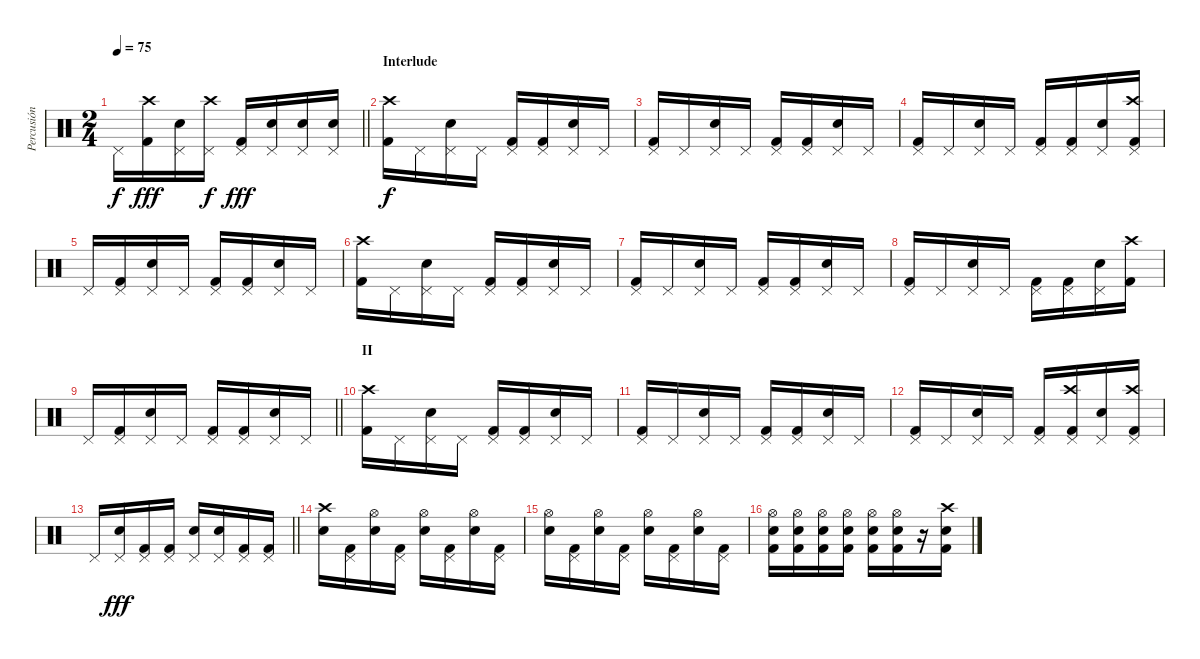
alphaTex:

\track ("Percusión" "Percusión") {instrument percussion}
\staff {score}
\articulation defaults
\ts (2 4)
\tempo 75
\clef neutral
\barLineRight lightlight
\ks c "Pedal Hi-Hat (hit)".16{dy f}
("Crash high (hit)" "Kick (hit) 2").16{dy fff} ("Pedal Hi-Hat (hit)" "Snare (hit) 2").16 ("Crash high (hit)" "Pedal Hi-Hat (hit)").16{dy f} ("Pedal Hi-Hat (hit)" "Kick (hit) 2").16{dy fff} ("Pedal Hi-Hat (hit)" "Snare (hit) 2").16 ("Pedal Hi-Hat (hit)" "Snare (hit) 2").16 ("Pedal Hi-Hat (hit)" "Snare (hit) 2").16 |
\section ("" "Interlude")
("Crash high (hit)" "Kick (hit) 2").16{dy f} "Pedal Hi-Hat (hit)".16 ("Pedal Hi-Hat (hit)" "Snare (hit) 2").16 "Pedal Hi-Hat (hit)".16 ("Pedal Hi-Hat (hit)" "Kick (hit) 2").16 ("Pedal Hi-Hat (hit)" "Kick (hit) 2").16 ("Pedal Hi-Hat (hit)" "Snare (hit) 2").16 "Pedal Hi-Hat (hit)".16 |
("Pedal Hi-Hat (hit)" "Kick (hit) 2").16 "Pedal Hi-Hat (hit)".16 ("Pedal Hi-Hat (hit)" "Snare (hit) 2").16 "Pedal Hi-Hat (hit)".16 ("Pedal Hi-Hat (hit)" "Kick (hit) 2").16 ("Pedal Hi-Hat (hit)" "Kick (hit) 2").16 ("Pedal Hi-Hat (hit)" "Snare (hit) 2").16 "Pedal Hi-Hat (hit)".16 |
("Pedal Hi-Hat (hit)" "Kick (hit) 2").16 "Pedal Hi-Hat (hit)".16 ("Pedal Hi-Hat (hit)" "Snare (hit) 2").16 "Pedal Hi-Hat (hit)".16 ("Pedal Hi-Hat (hit)" "Kick (hit) 2").16 ("Pedal Hi-Hat (hit)" "Kick (hit) 2").16 ("Pedal Hi-Hat (hit)" "Snare (hit) 2").16 ("Crash high (hit)" "Pedal Hi-Hat (hit)" "Kick (hit) 2").16 |
"Pedal Hi-Hat (hit)".16 ("Pedal Hi-Hat (hit)" "Kick (hit) 2").16 ("Pedal Hi-Hat (hit)" "Snare (hit) 2").16 "Pedal Hi-Hat (hit)".16 ("Pedal Hi-Hat (hit)" "Kick (hit) 2").16 ("Pedal Hi-Hat (hit)" "Kick (hit) 2").16 ("Pedal Hi-Hat (hit)" "Snare (hit) 2").16 "Pedal Hi-Hat (hit)".16 |
("Crash high (hit)" "Kick (hit) 2").16 "Pedal Hi-Hat (hit)".16 ("Pedal Hi-Hat (hit)" "Snare (hit) 2").16 "Pedal Hi-Hat (hit)".16 ("Pedal Hi-Hat (hit)" "Kick (hit) 2").16 ("Pedal Hi-Hat (hit)" "Kick (hit) 2").16 ("Pedal Hi-Hat (hit)" "Snare (hit) 2").16 "Pedal Hi-Hat (hit)".16 |
("Pedal Hi-Hat (hit)" "Kick (hit) 2").16 "Pedal Hi-Hat (hit)".16 ("Pedal Hi-Hat (hit)" "Snare (hit) 2").16 "Pedal Hi-Hat (hit)".16 ("Pedal Hi-Hat (hit)" "Kick (hit) 2").16 ("Pedal Hi-Hat (hit)" "Kick (hit) 2").16 ("Pedal Hi-Hat (hit)" "Snare (hit) 2").16 "Pedal Hi-Hat (hit)".16 |
("Pedal Hi-Hat (hit)" "Kick (hit) 2").16 "Pedal Hi-Hat (hit)".16 ("Pedal Hi-Hat (hit)" "Snare (hit) 2").16 "Pedal Hi-Hat (hit)".16 ("Pedal Hi-Hat (hit)" "Kick (hit) 2").16 ("Pedal Hi-Hat (hit)" "Kick (hit) 2").16 ("Pedal Hi-Hat (hit)" "Snare (hit) 2").16 ("Crash high (hit)" "Kick (hit) 2").16 |
\barLineRight lightlight "Pedal Hi-Hat (hit)".16
("Pedal Hi-Hat (hit)" "Kick (hit) 2").16 ("Pedal Hi-Hat (hit)" "Snare (hit) 2").16 "Pedal Hi-Hat (hit)".16 ("Pedal Hi-Hat (hit)" "Kick (hit) 2").16 ("Pedal Hi-Hat (hit)" "Kick (hit) 2").16 ("Pedal Hi-Hat (hit)" "Snare (hit) 2").16 "Pedal Hi-Hat (hit)".16 |
\section ("" "II")
("Crash high (hit)" "Kick (hit) 2").16 "Pedal Hi-Hat (hit)".16 ("Pedal Hi-Hat (hit)" "Snare (hit) 2").16 "Pedal Hi-Hat (hit)".16 ("Pedal Hi-Hat (hit)" "Kick (hit) 2").16 ("Pedal Hi-Hat (hit)" "Kick (hit) 2").16 ("Pedal Hi-Hat (hit)" "Snare (hit) 2").16 "Pedal Hi-Hat (hit)".16 |
("Pedal Hi-Hat (hit)" "Kick (hit) 2").16 "Pedal Hi-Hat (hit)".16 ("Pedal Hi-Hat (hit)" "Snare (hit) 2").16 "Pedal Hi-Hat (hit)".16 ("Pedal Hi-Hat (hit)" "Kick (hit) 2").16 ("Pedal Hi-Hat (hit)" "Kick (hit) 2").16 ("Pedal Hi-Hat (hit)" "Snare (hit) 2").16 "Pedal Hi-Hat (hit)".16 |
("Pedal Hi-Hat (hit)" "Kick (hit) 2").16 "Pedal Hi-Hat (hit)".16 ("Pedal Hi-Hat (hit)" "Snare (hit) 2").16 "Pedal Hi-Hat (hit)".16 ("Pedal Hi-Hat (hit)" "Kick (hit) 2").16 ("Crash high (hit)" "Pedal Hi-Hat (hit)" "Kick (hit) 2").16 ("Pedal Hi-Hat (hit)" "Snare (hit) 2").16 ("Crash high (hit)" "Pedal Hi-Hat (hit)" "Kick (hit) 2").16 |
\barLineRight lightlight "Pedal Hi-Hat (hit)".16
("Pedal Hi-Hat (hit)" "Snare (hit) 2").16{dy fff} ("Pedal Hi-Hat (hit)" "Kick (hit) 2").16 ("Pedal Hi-Hat (hit)" "Kick (hit) 2").16 ("Pedal Hi-Hat (hit)" "Snare (hit) 2").16 ("Pedal Hi-Hat (hit)" "Snare (hit) 2").16 ("Pedal Hi-Hat (hit)" "Kick (hit) 2").16 ("Pedal Hi-Hat (hit)" "Kick (hit) 2").16 |
\section ("" "")
("Crash high (hit)" "Snare (hit) 2").16 ("Pedal Hi-Hat (hit)" "Kick (hit) 2").16 ("Hi-Hat (open)" "Snare (hit) 2").16 ("Pedal Hi-Hat (hit)" "Kick (hit) 2").16 ("Hi-Hat (open)" "Snare (hit) 2").16 ("Pedal Hi-Hat (hit)" "Kick (hit) 2").16 ("Hi-Hat (open)" "Snare (hit) 2").16 ("Pedal Hi-Hat (hit)" "Kick (hit) 2").16 |
("Hi-Hat (open)" "Snare (hit) 2").16 ("Pedal Hi-Hat (hit)" "Kick (hit) 2").16 ("Hi-Hat (open)" "Snare (hit) 2").16 ("Pedal Hi-Hat (hit)" "Kick (hit) 2").16 ("Hi-Hat (open)" "Snare (hit) 2").16 ("Pedal Hi-Hat (hit)" "Kick (hit) 2").16 ("Hi-Hat (open)" "Snare (hit) 2").16 ("Pedal Hi-Hat (hit)" "Kick (hit) 2").16 |
("Hi-Hat (open)" "Snare (hit) 2" "Kick (hit) 2").16 ("Hi-Hat (open)" "Snare (hit) 2" "Kick (hit) 2").16 ("Hi-Hat (open)" "Snare (hit) 2" "Kick (hit) 2").16 ("Hi-Hat (open)" "Snare (hit) 2" "Kick (hit) 2").16 ("Hi-Hat (open)" "Snare (hit) 2" "Kick (hit) 2").16 ("Hi-Hat (open)" "Snare (hit) 2" "Kick (hit) 2").16 r.16 ("Crash high (hit)" "Snare (hit) 2" "Kick (hit) 2").16
